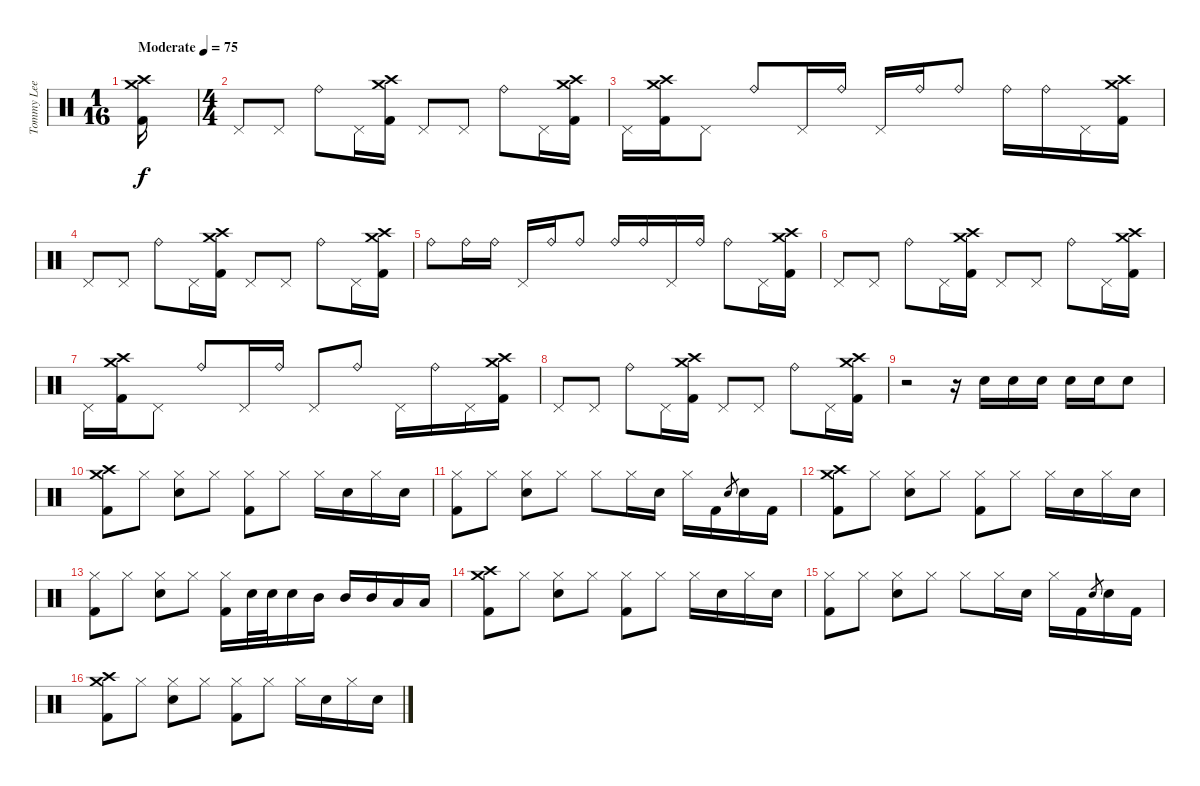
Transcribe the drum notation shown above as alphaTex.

\track ("Tommy Lee - Drums" "Tommy Lee ") {instrument percussion}
\staff {score}
\articulation defaults
\ts (1 16)
\tempo (75 "Moderate")
\clef neutral
\ks c
("Crash medium (hit)" "Crash high (hit)" "Kick (hit) 2").16{dy f} |
\ts (4 4)
"Pedal Hi-Hat (hit)".8 "Pedal Hi-Hat (hit)".8 "Ride (bell)".8 "Pedal Hi-Hat (hit)".16 ("Crash medium (hit)" "Crash high (hit)" "Kick (hit) 2").16 "Pedal Hi-Hat (hit)".8 "Pedal Hi-Hat (hit)".8 "Ride (bell)".8 "Pedal Hi-Hat (hit)".16 ("Crash medium (hit)" "Crash high (hit)" "Kick (hit) 2").16 |
"Pedal Hi-Hat (hit)".16 ("Crash medium (hit)" "Crash high (hit)" "Kick (hit) 2").16 "Pedal Hi-Hat (hit)".8 "Ride (bell)".8 "Pedal Hi-Hat (hit)".16 "Ride (bell)".16 "Pedal Hi-Hat (hit)".16 "Ride (bell)".16 "Ride (bell)".8 "Ride (bell)".16 "Ride (bell)".16 "Pedal Hi-Hat (hit)".16 ("Crash medium (hit)" "Crash high (hit)" "Kick (hit) 2").16 |
"Pedal Hi-Hat (hit)".8 "Pedal Hi-Hat (hit)".8 "Ride (bell)".8 "Pedal Hi-Hat (hit)".16 ("Crash medium (hit)" "Crash high (hit)" "Kick (hit) 2").16 "Pedal Hi-Hat (hit)".8 "Pedal Hi-Hat (hit)".8 "Ride (bell)".8 "Pedal Hi-Hat (hit)".16 ("Crash medium (hit)" "Crash high (hit)" "Kick (hit) 2").16 |
"Ride (bell)".8 "Ride (bell)".16 "Ride (bell)".16 "Pedal Hi-Hat (hit)".16 "Ride (bell)".16 "Ride (bell)".8 "Ride (bell)".16 "Ride (bell)".16 "Pedal Hi-Hat (hit)".16 "Ride (bell)".16 "Ride (bell)".8 "Pedal Hi-Hat (hit)".16 ("Crash medium (hit)" "Crash high (hit)" "Kick (hit) 2").16 |
"Pedal Hi-Hat (hit)".8 "Pedal Hi-Hat (hit)".8 "Ride (bell)".8 "Pedal Hi-Hat (hit)".16 ("Crash medium (hit)" "Crash high (hit)" "Kick (hit) 2").16 "Pedal Hi-Hat (hit)".8 "Pedal Hi-Hat (hit)".8 "Ride (bell)".8 "Pedal Hi-Hat (hit)".16 ("Crash medium (hit)" "Crash high (hit)" "Kick (hit) 2").16 |
"Pedal Hi-Hat (hit)".16 ("Crash medium (hit)" "Crash high (hit)" "Kick (hit) 2").16 "Pedal Hi-Hat (hit)".8 "Ride (bell)".8 "Pedal Hi-Hat (hit)".16 "Ride (bell)".16 "Pedal Hi-Hat (hit)".8 "Ride (bell)".8 "Pedal Hi-Hat (hit)".16 "Ride (bell)".16 "Pedal Hi-Hat (hit)".16 ("Crash medium (hit)" "Crash high (hit)" "Kick (hit) 2").16 |
"Pedal Hi-Hat (hit)".8 "Pedal Hi-Hat (hit)".8 "Ride (bell)".8 "Pedal Hi-Hat (hit)".16 ("Crash medium (hit)" "Crash high (hit)" "Kick (hit) 2").16 "Pedal Hi-Hat (hit)".8 "Pedal Hi-Hat (hit)".8 "Ride (bell)".8 "Pedal Hi-Hat (hit)".16 ("Crash medium (hit)" "Crash high (hit)" "Kick (hit) 2").16 |
r.2 r.16 "Snare (hit) 2".16 "Snare (hit) 2".16 "Snare (hit) 2".16 "Snare (hit) 2".16 "Snare (hit) 2".16 "Snare (hit) 2".8 |
("Crash medium (hit)" "Crash high (hit)" "Kick (hit) 2").8 "Hi-Hat (closed)".8 ("Hi-Hat (closed)" "Snare (hit) 2").8 "Hi-Hat (closed)".8 ("Hi-Hat (closed)" "Kick (hit) 2").8 "Hi-Hat (closed)".8 "Hi-Hat (closed)".16 "Snare (hit) 2".16 "Hi-Hat (closed)".16 "Snare (hit) 2".16 |
("Hi-Hat (closed)" "Kick (hit) 2").8 "Hi-Hat (closed)".8 ("Hi-Hat (closed)" "Snare (hit) 2").8 "Hi-Hat (closed)".8 "Hi-Hat (closed)".8 "Hi-Hat (closed)".16 "Snare (hit) 2".16 "Hi-Hat (closed)".16 "Kick (hit) 2".16 "Snare (hit) 2".8{gr} "Snare (hit) 2".16 "Kick (hit) 2".16 |
("Crash medium (hit)" "Crash high (hit)" "Kick (hit) 2").8 "Hi-Hat (closed)".8 ("Hi-Hat (closed)" "Snare (hit) 2").8 "Hi-Hat (closed)".8 ("Hi-Hat (closed)" "Kick (hit) 2").8 "Hi-Hat (closed)".8 "Hi-Hat (closed)".16 "Snare (hit) 2".16 "Hi-Hat (closed)".16 "Snare (hit) 2".16 |
("Hi-Hat (closed)" "Kick (hit) 2").8 "Hi-Hat (closed)".8 ("Hi-Hat (closed)" "Snare (hit) 2").8 "Hi-Hat (closed)".8 ("Hi-Hat (closed)" "Kick (hit) 2").16 "Snare (hit) 2".32 "Snare (hit) 2".32 "Snare (hit) 2".16 "Mid Tom (hit)".16 "Mid Tom (hit)".16 "Mid Tom (hit)".16 "Low Tom (hit)".16 "Low Tom (hit)".16 |
("Crash medium (hit)" "Crash high (hit)" "Kick (hit) 2").8 "Hi-Hat (closed)".8 ("Hi-Hat (closed)" "Snare (hit) 2").8 "Hi-Hat (closed)".8 ("Hi-Hat (closed)" "Kick (hit) 2").8 "Hi-Hat (closed)".8 "Hi-Hat (closed)".16 "Snare (hit) 2".16 "Hi-Hat (closed)".16 "Snare (hit) 2".16 |
("Hi-Hat (closed)" "Kick (hit) 2").8 "Hi-Hat (closed)".8 ("Hi-Hat (closed)" "Snare (hit) 2").8 "Hi-Hat (closed)".8 "Hi-Hat (closed)".8 "Hi-Hat (closed)".16 "Snare (hit) 2".16 "Hi-Hat (closed)".16 "Kick (hit) 2".16 "Snare (hit) 2".8{gr} "Snare (hit) 2".16 "Kick (hit) 2".16 |
("Crash medium (hit)" "Crash high (hit)" "Kick (hit) 2").8 "Hi-Hat (closed)".8 ("Hi-Hat (closed)" "Snare (hit) 2").8 "Hi-Hat (closed)".8 ("Hi-Hat (closed)" "Kick (hit) 2").8 "Hi-Hat (closed)".8 "Hi-Hat (closed)".16 "Snare (hit) 2".16 "Hi-Hat (closed)".16 "Snare (hit) 2".16
